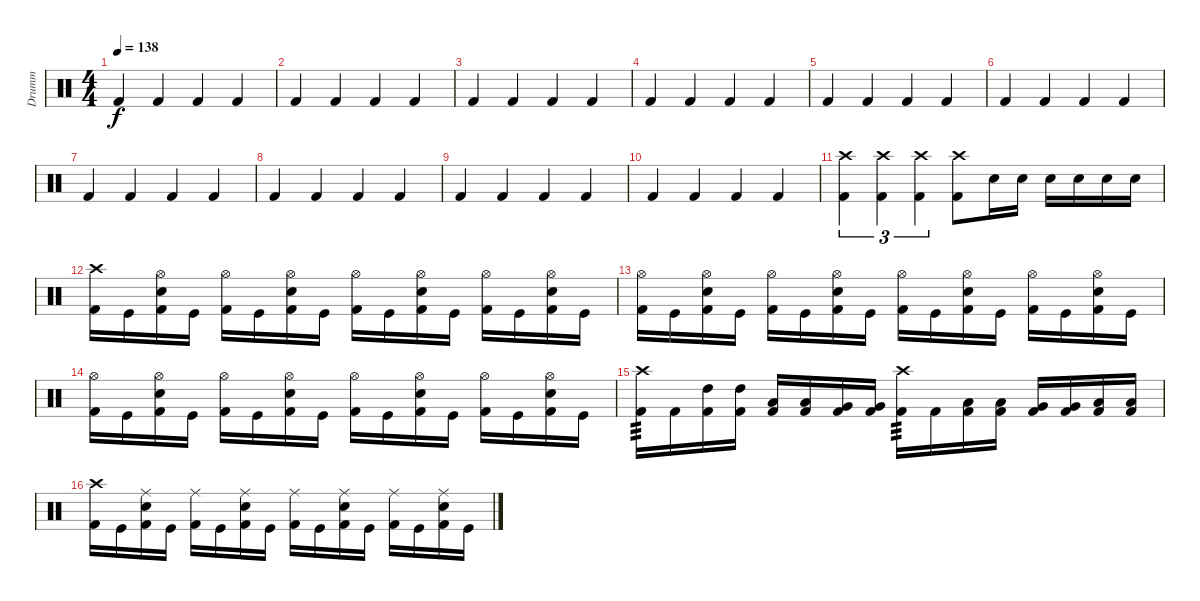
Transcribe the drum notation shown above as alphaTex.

\track ("Drumm" "Drumm") {instrument percussion}
\staff {score}
\articulation defaults
\ts (4 4)
\tempo 138
\clef neutral
\ks c "Kick (hit) 2".4{dy f} "Kick (hit) 2".4 "Kick (hit) 2".4 "Kick (hit) 2".4
|
"Kick (hit) 2".4 "Kick (hit) 2".4 "Kick (hit) 2".4 "Kick (hit) 2".4 |
"Kick (hit) 2".4 "Kick (hit) 2".4 "Kick (hit) 2".4 "Kick (hit) 2".4 |
"Kick (hit) 2".4 "Kick (hit) 2".4 "Kick (hit) 2".4 "Kick (hit) 2".4 |
"Kick (hit) 2".4 "Kick (hit) 2".4 "Kick (hit) 2".4 "Kick (hit) 2".4 |
"Kick (hit) 2".4 "Kick (hit) 2".4 "Kick (hit) 2".4 "Kick (hit) 2".4 |
"Kick (hit) 2".4 "Kick (hit) 2".4 "Kick (hit) 2".4 "Kick (hit) 2".4 |
"Kick (hit) 2".4 "Kick (hit) 2".4 "Kick (hit) 2".4 "Kick (hit) 2".4 |
"Kick (hit) 2".4 "Kick (hit) 2".4 "Kick (hit) 2".4 "Kick (hit) 2".4 |
"Kick (hit) 2".4 "Kick (hit) 2".4 "Kick (hit) 2".4 "Kick (hit) 2".4 |
("Crash high (hit)" "Kick (hit) 2").4{tu (3 2)} ("Crash high (hit)" "Kick (hit) 2").4{tu (3 2)} ("Crash high (hit)" "Kick (hit) 2").4{tu (3 2)} ("Crash high (hit)" "Kick (hit) 2").8 "Snare (hit) 2".16 "Snare (hit) 2".16 "Snare (hit) 2".16 "Snare (hit) 2".16 "Snare (hit) 2".16 "Snare (hit) 2".16 |
("Crash high (hit)" "Kick (hit) 2").16 "Kick (hit)".16 ("Hi-Hat (open)" "Snare (hit) 2" "Kick (hit) 2").16 "Kick (hit)".16 ("Hi-Hat (open)" "Kick (hit) 2").16 "Kick (hit)".16 ("Hi-Hat (open)" "Snare (hit) 2" "Kick (hit) 2").16 "Kick (hit)".16 ("Hi-Hat (open)" "Kick (hit) 2").16 "Kick (hit)".16 ("Hi-Hat (open)" "Snare (hit) 2" "Kick (hit) 2").16 "Kick (hit)".16 ("Hi-Hat (open)" "Kick (hit) 2").16 "Kick (hit)".16 ("Hi-Hat (open)" "Snare (hit) 2" "Kick (hit) 2").16 "Kick (hit)".16 |
("Hi-Hat (open)" "Kick (hit) 2").16 "Kick (hit)".16 ("Hi-Hat (open)" "Snare (hit) 2" "Kick (hit) 2").16 "Kick (hit)".16 ("Hi-Hat (open)" "Kick (hit) 2").16 "Kick (hit)".16 ("Hi-Hat (open)" "Snare (hit) 2" "Kick (hit) 2").16 "Kick (hit)".16 ("Hi-Hat (open)" "Kick (hit) 2").16 "Kick (hit)".16 ("Hi-Hat (open)" "Snare (hit) 2" "Kick (hit) 2").16 "Kick (hit)".16 ("Hi-Hat (open)" "Kick (hit) 2").16 "Kick (hit)".16 ("Hi-Hat (open)" "Snare (hit) 2" "Kick (hit) 2").16 "Kick (hit)".16 |
("Hi-Hat (open)" "Kick (hit) 2").16 "Kick (hit)".16 ("Hi-Hat (open)" "Snare (hit) 2" "Kick (hit) 2").16 "Kick (hit)".16 ("Hi-Hat (open)" "Kick (hit) 2").16 "Kick (hit)".16 ("Hi-Hat (open)" "Snare (hit) 2" "Kick (hit) 2").16 "Kick (hit)".16 ("Hi-Hat (open)" "Kick (hit) 2").16 "Kick (hit)".16 ("Hi-Hat (open)" "Snare (hit) 2" "Kick (hit) 2").16 "Kick (hit)".16 ("Hi-Hat (open)" "Kick (hit) 2").16 "Kick (hit)".16 ("Hi-Hat (open)" "Snare (hit) 2" "Kick (hit) 2").16 "Kick (hit)".16 |
("Crash high (hit)" "Kick (hit) 2").16{tp 3} "Kick (hit) 2".16 ("High Tom (hit)" "Kick (hit) 2").16 ("High Tom (hit)" "Kick (hit) 2").16 ("Low Tom (hit)" "Kick (hit) 2").16 ("Low Tom (hit)" "Kick (hit) 2").16 ("Very Low Tom (hit)" "Kick (hit) 2").16 ("Very Low Tom (hit)" "Kick (hit) 2").16 ("Crash high (hit)" "Kick (hit) 2").16{tp 3} "Kick (hit) 2".16 ("Low Tom (hit)" "Kick (hit) 2").16 ("Low Tom (hit)" "Kick (hit) 2").16 ("Very Low Tom (hit)" "Kick (hit) 2").16 ("Very Low Tom (hit)" "Kick (hit) 2").16 ("Low Floor Tom (hit)" "Kick (hit) 2").16 ("Low Floor Tom (hit)" "Kick (hit) 2").16 |
("Crash high (hit)" "Kick (hit) 2").16 "Kick (hit)".16 ("Ride (middle)" "Snare (hit) 2" "Kick (hit) 2").16 "Kick (hit)".16 ("Ride (middle)" "Kick (hit) 2").16 "Kick (hit)".16 ("Ride (middle)" "Snare (hit) 2" "Kick (hit) 2").16 "Kick (hit)".16 ("Ride (middle)" "Kick (hit) 2").16 "Kick (hit)".16 ("Ride (middle)" "Snare (hit) 2" "Kick (hit) 2").16 "Kick (hit)".16 ("Ride (middle)" "Kick (hit) 2").16 "Kick (hit)".16 ("Ride (middle)" "Snare (hit) 2" "Kick (hit) 2").16 "Kick (hit)".16
